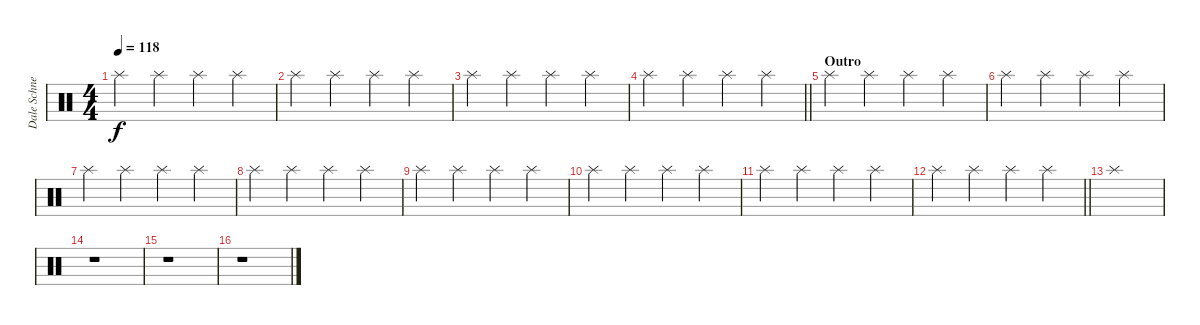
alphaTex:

\track ("Dale Schnettler (Drums)" "Dale Schne") {instrument percussion}
\staff {score}
\articulation defaults
\ts (4 4)
\tempo 118
\clef neutral
\ks c "Splash (hit)".4{dy f} "Splash (hit)".4 "Splash (hit)".4 "Splash (hit)".4
|
"Splash (hit)".4 "Splash (hit)".4 "Splash (hit)".4 "Splash (hit)".4 |
"Splash (hit)".4 "Splash (hit)".4 "Splash (hit)".4 "Splash (hit)".4 |
\barLineRight lightlight "Splash (hit)".4 "Splash (hit)".4 "Splash (hit)".4 "Splash (hit)".4
|
\section ("" "Outro")
"Splash (hit)".4 "Splash (hit)".4 "Splash (hit)".4 "Splash (hit)".4 |
"Splash (hit)".4 "Splash (hit)".4 "Splash (hit)".4 "Splash (hit)".4 |
"Splash (hit)".4 "Splash (hit)".4 "Splash (hit)".4 "Splash (hit)".4 |
"Splash (hit)".4 "Splash (hit)".4 "Splash (hit)".4 "Splash (hit)".4 |
"Splash (hit)".4 "Splash (hit)".4 "Splash (hit)".4 "Splash (hit)".4 |
"Splash (hit)".4 "Splash (hit)".4 "Splash (hit)".4 "Splash (hit)".4 |
"Splash (hit)".4 "Splash (hit)".4 "Splash (hit)".4 "Splash (hit)".4 |
\barLineRight lightlight "Splash (hit)".4 "Splash (hit)".4 "Splash (hit)".4 "Splash (hit)".4
|
"Splash (hit)".1 |
r.1 |
r.1 |
r.1
